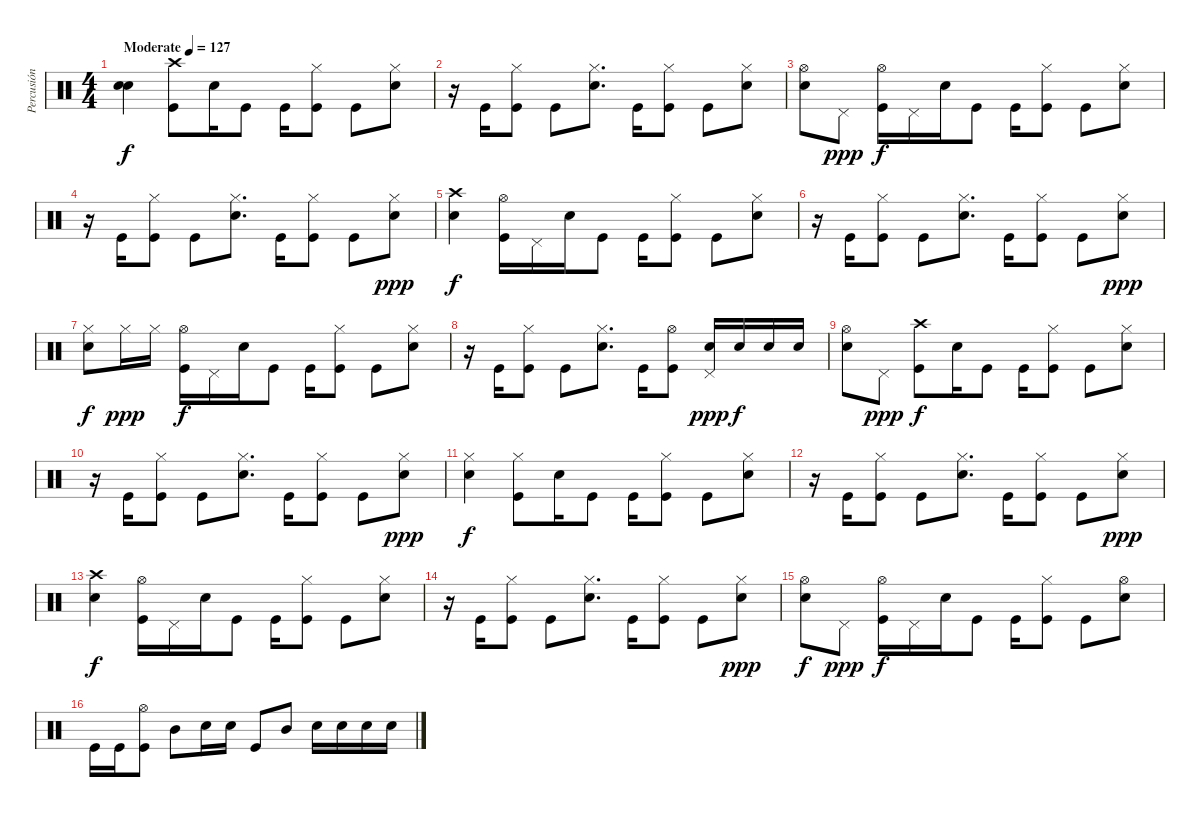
\track ("Percusión" "Percusión") {instrument percussion}
\staff {score}
\articulation defaults
\ts (4 4)
\tempo (127 "Moderate")
\clef neutral
\ks c
("Snare (hit) 2" "Snare (hit) 2").4{dy f} ("Kick (hit)" "Crash high (hit)").8 "Snare (hit) 2".16 "Kick (hit)".8 "Kick (hit)".16 ("Kick (hit)" "Hi-Hat (closed)").8 "Kick (hit)".8 ("Snare (hit) 2" "Hi-Hat (closed)").8 |
r.16 "Kick (hit)".16 ("Kick (hit)" "Hi-Hat (closed)").8 "Kick (hit)".8 ("Snare (hit) 2" "Hi-Hat (closed)").8{d} "Kick (hit)".16 ("Kick (hit)" "Hi-Hat (closed)").8 "Kick (hit)".8 ("Snare (hit) 2" "Hi-Hat (closed)").8 |
("Snare (hit) 2" "Hi-Hat (open)").8 "Pedal Hi-Hat (hit)".8{dy ppp} ("Kick (hit)" "Hi-Hat (open)").16{dy f} "Pedal Hi-Hat (hit)".16 "Snare (hit) 2".16 "Kick (hit)".8 "Kick (hit)".16 ("Kick (hit)" "Hi-Hat (closed)").8 "Kick (hit)".8 ("Snare (hit) 2" "Hi-Hat (closed)").8 |
r.16 "Kick (hit)".16 ("Kick (hit)" "Hi-Hat (closed)").8 "Kick (hit)".8 ("Snare (hit) 2" "Hi-Hat (closed)").8{d} "Kick (hit)".16 ("Kick (hit)" "Hi-Hat (closed)").8 "Kick (hit)".8 ("Snare (hit) 2" "Hi-Hat (closed)").8{dy ppp} |
("Snare (hit) 2" "Crash high (hit)").4{dy f} ("Kick (hit)" "Hi-Hat (open)").16 "Pedal Hi-Hat (hit)".16 "Snare (hit) 2".16 "Kick (hit)".8 "Kick (hit)".16 ("Kick (hit)" "Hi-Hat (closed)").8 "Kick (hit)".8 ("Snare (hit) 2" "Hi-Hat (closed)").8 |
r.16 "Kick (hit)".16 ("Kick (hit)" "Hi-Hat (closed)").8 "Kick (hit)".8 ("Snare (hit) 2" "Hi-Hat (closed)").8{d} "Kick (hit)".16 ("Kick (hit)" "Hi-Hat (closed)").8 "Kick (hit)".8 ("Snare (hit) 2" "Hi-Hat (closed)").8{dy ppp} |
("Snare (hit) 2" "Hi-Hat (closed)").8{dy f} "Hi-Hat (closed)".16{dy ppp} "Hi-Hat (closed)".16 ("Kick (hit)" "Hi-Hat (open)").16{dy f} "Pedal Hi-Hat (hit)".16 "Snare (hit) 2".16 "Kick (hit)".8 "Kick (hit)".16 ("Kick (hit)" "Hi-Hat (closed)").8 "Kick (hit)".8 ("Snare (hit) 2" "Hi-Hat (closed)").8 |
r.16 "Kick (hit)".16 ("Kick (hit)" "Hi-Hat (closed)").8 "Kick (hit)".8 ("Snare (hit) 2" "Hi-Hat (closed)").8{d} "Kick (hit)".16 ("Kick (hit)" "Hi-Hat (open)").8 ("Snare (hit) 2" "Pedal Hi-Hat (hit)").16{dy ppp} "Snare (hit) 2".16{dy f} "Snare (hit) 2".16 "Snare (hit) 2".16 |
("Snare (hit) 2" "Hi-Hat (open)").8 "Pedal Hi-Hat (hit)".8{dy ppp} ("Kick (hit)" "Crash high (hit)").8{dy f} "Snare (hit) 2".16 "Kick (hit)".8 "Kick (hit)".16 ("Kick (hit)" "Hi-Hat (closed)").8 "Kick (hit)".8 ("Snare (hit) 2" "Hi-Hat (closed)").8 |
r.16 "Kick (hit)".16 ("Kick (hit)" "Hi-Hat (closed)").8 "Kick (hit)".8 ("Snare (hit) 2" "Hi-Hat (closed)").8{d} "Kick (hit)".16 ("Kick (hit)" "Hi-Hat (closed)").8 "Kick (hit)".8 ("Snare (hit) 2" "Hi-Hat (closed)").8{dy ppp} |
("Snare (hit) 2" "Hi-Hat (closed)").4{dy f} ("Kick (hit)" "Hi-Hat (closed)").8 "Snare (hit) 2".16 "Kick (hit)".8 "Kick (hit)".16 ("Kick (hit)" "Hi-Hat (closed)").8 "Kick (hit)".8 ("Snare (hit) 2" "Hi-Hat (closed)").8 |
r.16 "Kick (hit)".16 ("Kick (hit)" "Hi-Hat (closed)").8 "Kick (hit)".8 ("Snare (hit) 2" "Hi-Hat (closed)").8{d} "Kick (hit)".16 ("Kick (hit)" "Hi-Hat (closed)").8 "Kick (hit)".8 ("Snare (hit) 2" "Hi-Hat (closed)").8{dy ppp} |
("Snare (hit) 2" "Crash high (hit)").4{dy f} ("Kick (hit)" "Hi-Hat (open)").16 "Pedal Hi-Hat (hit)".16 "Snare (hit) 2".16 "Kick (hit)".8 "Kick (hit)".16 ("Kick (hit)" "Hi-Hat (closed)").8 "Kick (hit)".8 ("Snare (hit) 2" "Hi-Hat (closed)").8 |
r.16 "Kick (hit)".16 ("Kick (hit)" "Hi-Hat (closed)").8 "Kick (hit)".8 ("Snare (hit) 2" "Hi-Hat (closed)").8{d} "Kick (hit)".16 ("Kick (hit)" "Hi-Hat (closed)").8 "Kick (hit)".8 ("Snare (hit) 2" "Hi-Hat (closed)").8{dy ppp} |
("Snare (hit) 2" "Hi-Hat (open)").8{dy f} "Pedal Hi-Hat (hit)".8{dy ppp} ("Kick (hit)" "Hi-Hat (open)").16{dy f} "Pedal Hi-Hat (hit)".16 "Snare (hit) 2".16 "Kick (hit)".8 "Kick (hit)".16 ("Kick (hit)" "Hi-Hat (closed)").8 "Kick (hit)".8 ("Snare (hit) 2" "Hi-Hat (open)").8 |
"Kick (hit)".16 "Kick (hit)".16 ("Kick (hit)" "Hi-Hat (open)").8 "Mid Tom (hit)".8 "Snare (hit) 2".16 "Snare (hit) 2".16 "Kick (hit)".8 "Mid Tom (hit)".8 "Snare (hit) 2".16 "Snare (hit) 2".16 "Snare (hit) 2".16 "Snare (hit) 2".16
